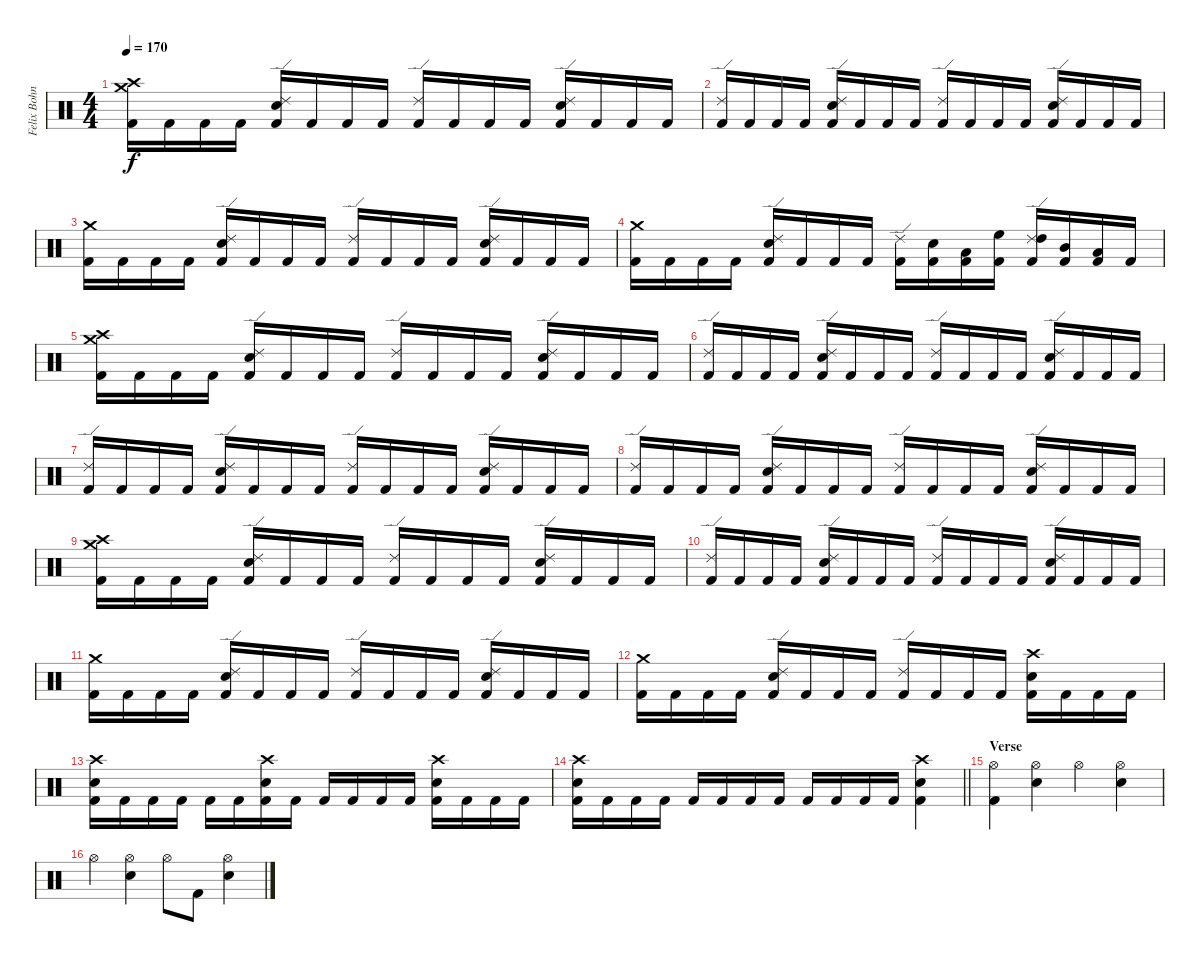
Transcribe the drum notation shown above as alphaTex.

\track ("Felix Bohnke - Drums" "Felix Bohn") {instrument percussion}
\staff {score}
\articulation defaults
\ts (4 4)
\tempo 170
\clef neutral
\ks c
("Crash high (hit)" "Crash medium (hit)" "Kick (hit) 2").16{dy f} "Kick (hit) 2".16 "Kick (hit) 2".16 "Kick (hit) 2".16 ("Ride (edge) 2" "Snare (hit) 2" "Kick (hit) 2").16 "Kick (hit) 2".16 "Kick (hit) 2".16 "Kick (hit) 2".16 ("Ride (edge) 2" "Kick (hit) 2").16 "Kick (hit) 2".16 "Kick (hit) 2".16 "Kick (hit) 2".16 ("Ride (edge) 2" "Snare (hit) 2" "Kick (hit) 2").16 "Kick (hit) 2".16 "Kick (hit) 2".16 "Kick (hit) 2".16 |
("Ride (edge) 2" "Kick (hit) 2").16 "Kick (hit) 2".16 "Kick (hit) 2".16 "Kick (hit) 2".16 ("Ride (edge) 2" "Snare (hit) 2" "Kick (hit) 2").16 "Kick (hit) 2".16 "Kick (hit) 2".16 "Kick (hit) 2".16 ("Ride (edge) 2" "Kick (hit) 2").16 "Kick (hit) 2".16 "Kick (hit) 2".16 "Kick (hit) 2".16 ("Ride (edge) 2" "Snare (hit) 2" "Kick (hit) 2").16 "Kick (hit) 2".16 "Kick (hit) 2".16 "Kick (hit) 2".16 |
("Crash medium (hit)" "Kick (hit) 2").16 "Kick (hit) 2".16 "Kick (hit) 2".16 "Kick (hit) 2".16 ("Ride (edge) 2" "Snare (hit) 2" "Kick (hit) 2").16 "Kick (hit) 2".16 "Kick (hit) 2".16 "Kick (hit) 2".16 ("Ride (edge) 2" "Kick (hit) 2").16 "Kick (hit) 2".16 "Kick (hit) 2".16 "Kick (hit) 2".16 ("Ride (edge) 2" "Snare (hit) 2" "Kick (hit) 2").16 "Kick (hit) 2".16 "Kick (hit) 2".16 "Kick (hit) 2".16 |
("Crash medium (hit)" "Kick (hit) 2").16 "Kick (hit) 2".16 "Kick (hit) 2".16 "Kick (hit) 2".16 ("Ride (edge) 2" "Snare (hit) 2" "Kick (hit) 2").16 "Kick (hit) 2".16 "Kick (hit) 2".16 "Kick (hit) 2".16 ("Ride (edge) 2" "Kick (hit) 2").16 ("Snare (hit) 2" "Kick (hit) 2").16 ("Low Tom (hit)" "Kick (hit) 2").16 ("High Floor Tom (hit)" "Kick (hit) 2").16 ("Ride (edge) 2" "High Tom (hit)" "Kick (hit) 2").16 ("Mid Tom (hit)" "Kick (hit) 2").16 ("Low Tom (hit)" "Kick (hit) 2").16 "Kick (hit) 2".16 |
("Crash high (hit)" "Crash medium (hit)" "Kick (hit) 2").16 "Kick (hit) 2".16 "Kick (hit) 2".16 "Kick (hit) 2".16 ("Ride (edge) 2" "Snare (hit) 2" "Kick (hit) 2").16 "Kick (hit) 2".16 "Kick (hit) 2".16 "Kick (hit) 2".16 ("Ride (edge) 2" "Kick (hit) 2").16 "Kick (hit) 2".16 "Kick (hit) 2".16 "Kick (hit) 2".16 ("Ride (edge) 2" "Snare (hit) 2" "Kick (hit) 2").16 "Kick (hit) 2".16 "Kick (hit) 2".16 "Kick (hit) 2".16 |
("Ride (edge) 2" "Kick (hit) 2").16 "Kick (hit) 2".16 "Kick (hit) 2".16 "Kick (hit) 2".16 ("Ride (edge) 2" "Snare (hit) 2" "Kick (hit) 2").16 "Kick (hit) 2".16 "Kick (hit) 2".16 "Kick (hit) 2".16 ("Ride (edge) 2" "Kick (hit) 2").16 "Kick (hit) 2".16 "Kick (hit) 2".16 "Kick (hit) 2".16 ("Ride (edge) 2" "Snare (hit) 2" "Kick (hit) 2").16 "Kick (hit) 2".16 "Kick (hit) 2".16 "Kick (hit) 2".16 |
("Ride (edge) 2" "Kick (hit) 2").16 "Kick (hit) 2".16 "Kick (hit) 2".16 "Kick (hit) 2".16 ("Ride (edge) 2" "Snare (hit) 2" "Kick (hit) 2").16 "Kick (hit) 2".16 "Kick (hit) 2".16 "Kick (hit) 2".16 ("Ride (edge) 2" "Kick (hit) 2").16 "Kick (hit) 2".16 "Kick (hit) 2".16 "Kick (hit) 2".16 ("Ride (edge) 2" "Snare (hit) 2" "Kick (hit) 2").16 "Kick (hit) 2".16 "Kick (hit) 2".16 "Kick (hit) 2".16 |
("Ride (edge) 2" "Kick (hit) 2").16 "Kick (hit) 2".16 "Kick (hit) 2".16 "Kick (hit) 2".16 ("Ride (edge) 2" "Snare (hit) 2" "Kick (hit) 2").16 "Kick (hit) 2".16 "Kick (hit) 2".16 "Kick (hit) 2".16 ("Ride (edge) 2" "Kick (hit) 2").16 "Kick (hit) 2".16 "Kick (hit) 2".16 "Kick (hit) 2".16 ("Ride (edge) 2" "Snare (hit) 2" "Kick (hit) 2").16 "Kick (hit) 2".16 "Kick (hit) 2".16 "Kick (hit) 2".16 |
("Crash high (hit)" "Crash medium (hit)" "Kick (hit) 2").16 "Kick (hit) 2".16 "Kick (hit) 2".16 "Kick (hit) 2".16 ("Ride (edge) 2" "Snare (hit) 2" "Kick (hit) 2").16 "Kick (hit) 2".16 "Kick (hit) 2".16 "Kick (hit) 2".16 ("Ride (edge) 2" "Kick (hit) 2").16 "Kick (hit) 2".16 "Kick (hit) 2".16 "Kick (hit) 2".16 ("Ride (edge) 2" "Snare (hit) 2" "Kick (hit) 2").16 "Kick (hit) 2".16 "Kick (hit) 2".16 "Kick (hit) 2".16 |
("Ride (edge) 2" "Kick (hit) 2").16 "Kick (hit) 2".16 "Kick (hit) 2".16 "Kick (hit) 2".16 ("Ride (edge) 2" "Snare (hit) 2" "Kick (hit) 2").16 "Kick (hit) 2".16 "Kick (hit) 2".16 "Kick (hit) 2".16 ("Ride (edge) 2" "Kick (hit) 2").16 "Kick (hit) 2".16 "Kick (hit) 2".16 "Kick (hit) 2".16 ("Ride (edge) 2" "Snare (hit) 2" "Kick (hit) 2").16 "Kick (hit) 2".16 "Kick (hit) 2".16 "Kick (hit) 2".16 |
("Crash medium (hit)" "Kick (hit) 2").16 "Kick (hit) 2".16 "Kick (hit) 2".16 "Kick (hit) 2".16 ("Ride (edge) 2" "Snare (hit) 2" "Kick (hit) 2").16 "Kick (hit) 2".16 "Kick (hit) 2".16 "Kick (hit) 2".16 ("Ride (edge) 2" "Kick (hit) 2").16 "Kick (hit) 2".16 "Kick (hit) 2".16 "Kick (hit) 2".16 ("Ride (edge) 2" "Snare (hit) 2" "Kick (hit) 2").16 "Kick (hit) 2".16 "Kick (hit) 2".16 "Kick (hit) 2".16 |
("Crash medium (hit)" "Kick (hit) 2").16 "Kick (hit) 2".16 "Kick (hit) 2".16 "Kick (hit) 2".16 ("Ride (edge) 2" "Snare (hit) 2" "Kick (hit) 2").16 "Kick (hit) 2".16 "Kick (hit) 2".16 "Kick (hit) 2".16 ("Ride (edge) 2" "Kick (hit) 2").16 "Kick (hit) 2".16 "Kick (hit) 2".16 "Kick (hit) 2".16 ("Crash high (hit)" "Snare (hit) 2" "Kick (hit) 2").16 "Kick (hit) 2".16 "Kick (hit) 2".16 "Kick (hit) 2".16 |
("Crash high (hit)" "Snare (hit) 2" "Kick (hit) 2").16 "Kick (hit) 2".16 "Kick (hit) 2".16 "Kick (hit) 2".16 "Kick (hit) 2".16 "Kick (hit) 2".16 ("Crash high (hit)" "Snare (hit) 2" "Kick (hit) 2").16 "Kick (hit) 2".16 "Kick (hit) 2".16 "Kick (hit) 2".16 "Kick (hit) 2".16 "Kick (hit) 2".16 ("Crash high (hit)" "Snare (hit) 2" "Kick (hit) 2").16 "Kick (hit) 2".16 "Kick (hit) 2".16 "Kick (hit) 2".16 |
\barLineRight lightlight
("Crash high (hit)" "Snare (hit) 2" "Kick (hit) 2").16 "Kick (hit) 2".16 "Kick (hit) 2".16 "Kick (hit) 2".16 "Kick (hit) 2".16 "Kick (hit) 2".16 "Kick (hit) 2".16 "Kick (hit) 2".16 "Kick (hit) 2".16 "Kick (hit) 2".16 "Kick (hit) 2".16 "Kick (hit) 2".16 ("Crash high (hit)" "Snare (hit) 2" "Kick (hit) 2").4 |
\section ("" "Verse")
("Hi-Hat (open)" "Kick (hit) 2").4 ("Hi-Hat (open)" "Snare (hit) 2").4 "Hi-Hat (open)".4 ("Hi-Hat (open)" "Snare (hit) 2").4 |
"Hi-Hat (open)".4 ("Hi-Hat (open)" "Snare (hit) 2").4 "Hi-Hat (open)".8 "Kick (hit) 2".8 ("Hi-Hat (open)" "Snare (hit) 2").4
